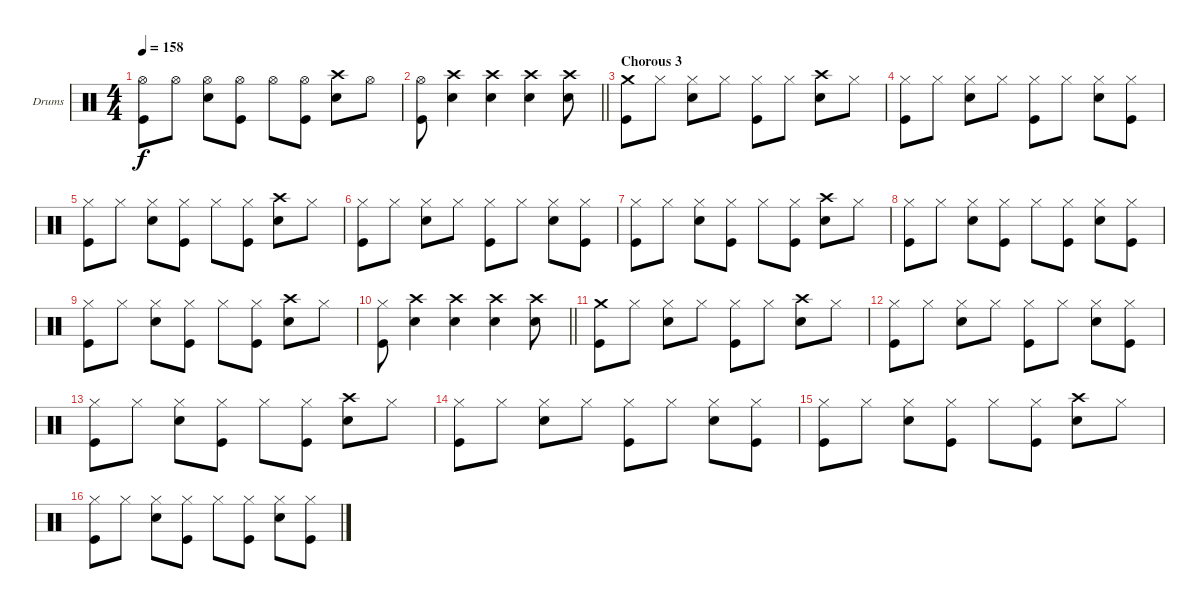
\bracketExtendMode groupsimilarinstruments
\firstSystemTrackNameOrientation horizontal
\otherSystemsTrackNameOrientation horizontal
\track ("Drumkit" "Drums") {instrument percussion}
\staff {score}
\articulation defaults
\ts (4 4)
\tempo 158
\clef neutral
\ks c
("Hi-Hat (open)" "Kick (hit)").8{dy f} "Hi-Hat (open)".8 ("Hi-Hat (open)" "Snare (hit) 2").8 ("Hi-Hat (open)" "Kick (hit)").8 "Hi-Hat (open)".8 ("Hi-Hat (open)" "Kick (hit)").8 ("Crash high (hit)" "Snare (hit) 2").8 "Hi-Hat (open)".8 |
\barLineRight lightlight
("Hi-Hat (open)" "Kick (hit)").8 ("Crash high (hit)" "Snare (hit) 2").4 ("Crash high (hit)" "Snare (hit) 2").4 ("Crash high (hit)" "Snare (hit) 2").4 ("Crash high (hit)" "Snare (hit) 2").8 |
\section ("" "Chorous 3")
("Crash medium (hit)" "Kick (hit)").8 "Hi-Hat (closed)".8 ("Hi-Hat (closed)" "Snare (hit) 2").8 "Hi-Hat (closed)".8 ("Hi-Hat (closed)" "Kick (hit)").8 "Hi-Hat (closed)".8 ("Crash high (hit)" "Snare (hit) 2").8 "Hi-Hat (closed)".8 |
("Hi-Hat (closed)" "Kick (hit)").8 "Hi-Hat (closed)".8 ("Hi-Hat (closed)" "Snare (hit) 2").8 "Hi-Hat (closed)".8 ("Hi-Hat (closed)" "Kick (hit)").8 "Hi-Hat (closed)".8 ("Hi-Hat (closed)" "Snare (hit) 2").8 ("Hi-Hat (closed)" "Kick (hit)").8 |
("Hi-Hat (closed)" "Kick (hit)").8 "Hi-Hat (closed)".8 ("Hi-Hat (closed)" "Snare (hit) 2").8 ("Hi-Hat (closed)" "Kick (hit)").8 "Hi-Hat (closed)".8 ("Hi-Hat (closed)" "Kick (hit)").8 ("Crash high (hit)" "Snare (hit) 2").8 "Hi-Hat (closed)".8 |
("Hi-Hat (closed)" "Kick (hit)").8 "Hi-Hat (closed)".8 ("Hi-Hat (closed)" "Snare (hit) 2").8 "Hi-Hat (closed)".8 ("Hi-Hat (closed)" "Kick (hit)").8 "Hi-Hat (closed)".8 ("Hi-Hat (closed)" "Snare (hit) 2").8 ("Hi-Hat (closed)" "Kick (hit)").8 |
("Hi-Hat (closed)" "Kick (hit)").8 "Hi-Hat (closed)".8 ("Hi-Hat (closed)" "Snare (hit) 2").8 ("Hi-Hat (closed)" "Kick (hit)").8 "Hi-Hat (closed)".8 ("Hi-Hat (closed)" "Kick (hit)").8 ("Crash high (hit)" "Snare (hit) 2").8 "Hi-Hat (closed)".8 |
("Hi-Hat (closed)" "Kick (hit)").8 "Hi-Hat (closed)".8 ("Hi-Hat (closed)" "Snare (hit) 2").8 ("Hi-Hat (closed)" "Kick (hit)").8 "Hi-Hat (closed)".8 ("Hi-Hat (closed)" "Kick (hit)").8 ("Hi-Hat (closed)" "Snare (hit) 2").8 ("Hi-Hat (closed)" "Kick (hit)").8 |
("Hi-Hat (closed)" "Kick (hit)").8 "Hi-Hat (closed)".8 ("Hi-Hat (closed)" "Snare (hit) 2").8 ("Hi-Hat (closed)" "Kick (hit)").8 "Hi-Hat (closed)".8 ("Hi-Hat (closed)" "Kick (hit)").8 ("Crash high (hit)" "Snare (hit) 2").8 "Hi-Hat (closed)".8 |
\barLineRight lightlight
("Hi-Hat (closed)" "Kick (hit)").8 ("Crash high (hit)" "Snare (hit) 2").4 ("Crash high (hit)" "Snare (hit) 2").4 ("Crash high (hit)" "Snare (hit) 2").4 ("Crash high (hit)" "Snare (hit) 2").8 |
\section ("" "")
("Crash medium (hit)" "Kick (hit)").8 "Hi-Hat (closed)".8 ("Hi-Hat (closed)" "Snare (hit) 2").8 "Hi-Hat (closed)".8 ("Hi-Hat (closed)" "Kick (hit)").8 "Hi-Hat (closed)".8 ("Crash high (hit)" "Snare (hit) 2").8 "Hi-Hat (closed)".8 |
("Hi-Hat (closed)" "Kick (hit)").8 "Hi-Hat (closed)".8 ("Hi-Hat (closed)" "Snare (hit) 2").8 "Hi-Hat (closed)".8 ("Hi-Hat (closed)" "Kick (hit)").8 "Hi-Hat (closed)".8 ("Hi-Hat (closed)" "Snare (hit) 2").8 ("Hi-Hat (closed)" "Kick (hit)").8 |
("Hi-Hat (closed)" "Kick (hit)").8 "Hi-Hat (closed)".8 ("Hi-Hat (closed)" "Snare (hit) 2").8 ("Hi-Hat (closed)" "Kick (hit)").8 "Hi-Hat (closed)".8 ("Hi-Hat (closed)" "Kick (hit)").8 ("Crash high (hit)" "Snare (hit) 2").8 "Hi-Hat (closed)".8 |
("Hi-Hat (closed)" "Kick (hit)").8 "Hi-Hat (closed)".8 ("Hi-Hat (closed)" "Snare (hit) 2").8 "Hi-Hat (closed)".8 ("Hi-Hat (closed)" "Kick (hit)").8 "Hi-Hat (closed)".8 ("Hi-Hat (closed)" "Snare (hit) 2").8 ("Hi-Hat (closed)" "Kick (hit)").8 |
("Hi-Hat (closed)" "Kick (hit)").8 "Hi-Hat (closed)".8 ("Hi-Hat (closed)" "Snare (hit) 2").8 ("Hi-Hat (closed)" "Kick (hit)").8 "Hi-Hat (closed)".8 ("Hi-Hat (closed)" "Kick (hit)").8 ("Crash high (hit)" "Snare (hit) 2").8 "Hi-Hat (closed)".8 |
("Hi-Hat (closed)" "Kick (hit)").8 "Hi-Hat (closed)".8 ("Hi-Hat (closed)" "Snare (hit) 2").8 ("Hi-Hat (closed)" "Kick (hit)").8 "Hi-Hat (closed)".8 ("Hi-Hat (closed)" "Kick (hit)").8 ("Hi-Hat (closed)" "Snare (hit) 2").8 ("Hi-Hat (closed)" "Kick (hit)").8
